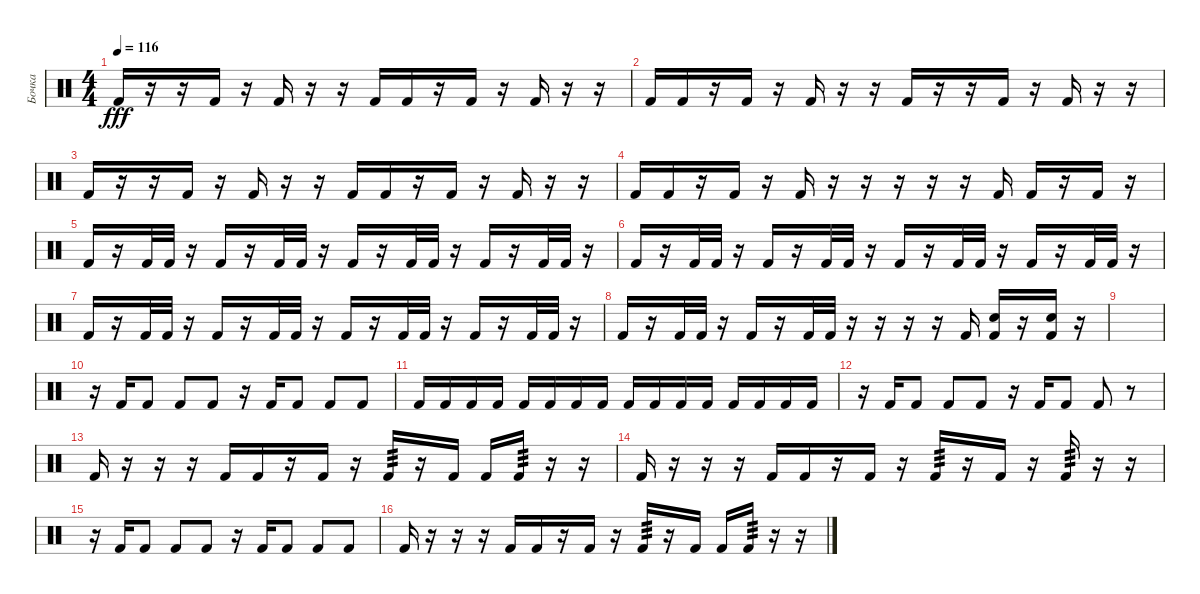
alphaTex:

\track ("Бочка" "Бочка") {instrument percussion}
\staff {score}
\articulation defaults
\ts (4 4)
\tempo 116
\clef neutral
\ks c "Kick (hit) 2".16{dy fff}
r.16 r.16 "Kick (hit) 2".16 r.16 "Kick (hit) 2".16 r.16 r.16 "Kick (hit) 2".16 "Kick (hit) 2".16 r.16 "Kick (hit) 2".16 r.16 "Kick (hit) 2".16 r.16 r.16 |
"Kick (hit) 2".16 "Kick (hit) 2".16 r.16 "Kick (hit) 2".16 r.16 "Kick (hit) 2".16 r.16 r.16 "Kick (hit) 2".16 r.16 r.16 "Kick (hit) 2".16 r.16 "Kick (hit) 2".16 r.16 r.16 |
"Kick (hit) 2".16 r.16 r.16 "Kick (hit) 2".16 r.16 "Kick (hit) 2".16 r.16 r.16 "Kick (hit) 2".16 "Kick (hit) 2".16 r.16 "Kick (hit) 2".16 r.16 "Kick (hit) 2".16 r.16 r.16 |
"Kick (hit) 2".16 "Kick (hit) 2".16 r.16 "Kick (hit) 2".16 r.16 "Kick (hit) 2".16 r.16 r.16 r.16 r.16 r.16 "Kick (hit) 2".16 "Kick (hit) 2".16 r.16 "Kick (hit) 2".16 r.16 |
"Kick (hit) 2".16 r.16 "Kick (hit) 2".32 "Kick (hit) 2".32 r.16 "Kick (hit) 2".16 r.16 "Kick (hit) 2".32 "Kick (hit) 2".32 r.16 "Kick (hit) 2".16 r.16 "Kick (hit) 2".32 "Kick (hit) 2".32 r.16 "Kick (hit) 2".16 r.16 "Kick (hit) 2".32 "Kick (hit) 2".32 r.16 |
"Kick (hit) 2".16 r.16 "Kick (hit) 2".32 "Kick (hit) 2".32 r.16 "Kick (hit) 2".16 r.16 "Kick (hit) 2".32 "Kick (hit) 2".32 r.16 "Kick (hit) 2".16 r.16 "Kick (hit) 2".32 "Kick (hit) 2".32 r.16 "Kick (hit) 2".16 r.16 "Kick (hit) 2".32 "Kick (hit) 2".32 r.16 |
"Kick (hit) 2".16 r.16 "Kick (hit) 2".32 "Kick (hit) 2".32 r.16 "Kick (hit) 2".16 r.16 "Kick (hit) 2".32 "Kick (hit) 2".32 r.16 "Kick (hit) 2".16 r.16 "Kick (hit) 2".32 "Kick (hit) 2".32 r.16 "Kick (hit) 2".16 r.16 "Kick (hit) 2".32 "Kick (hit) 2".32 r.16 |
"Kick (hit) 2".16 r.16 "Kick (hit) 2".32 "Kick (hit) 2".32 r.16 "Kick (hit) 2".16 r.16 "Kick (hit) 2".32 "Kick (hit) 2".32 r.16 r.16 r.16 r.16 "Kick (hit) 2".16 ("Snare (hit)" "Kick (hit) 2").16 r.16 ("Snare (hit)" "Kick (hit) 2").16 r.16 |
|
r.16 "Kick (hit) 2".16 "Kick (hit) 2".8 "Kick (hit) 2".8 "Kick (hit) 2".8 r.16 "Kick (hit) 2".16 "Kick (hit) 2".8 "Kick (hit) 2".8 "Kick (hit) 2".8 |
"Kick (hit) 2".16 "Kick (hit) 2".16 "Kick (hit) 2".16 "Kick (hit) 2".16 "Kick (hit) 2".16 "Kick (hit) 2".16 "Kick (hit) 2".16 "Kick (hit) 2".16 "Kick (hit) 2".16 "Kick (hit) 2".16 "Kick (hit) 2".16 "Kick (hit) 2".16 "Kick (hit) 2".16 "Kick (hit) 2".16 "Kick (hit) 2".16 "Kick (hit) 2".16 |
r.16 "Kick (hit) 2".16 "Kick (hit) 2".8 "Kick (hit) 2".8 "Kick (hit) 2".8 r.16 "Kick (hit) 2".16 "Kick (hit) 2".8 "Kick (hit) 2".8 r.8 |
"Kick (hit) 2".16 r.16 r.16 r.16 "Kick (hit) 2".16 "Kick (hit) 2".16 r.16 "Kick (hit) 2".16 r.16 "Kick (hit) 2".16{tp 3} r.16 "Kick (hit) 2".16 "Kick (hit) 2".16 "Kick (hit) 2".16{tp 3} r.16 r.16 |
"Kick (hit) 2".16 r.16 r.16 r.16 "Kick (hit) 2".16 "Kick (hit) 2".16 r.16 "Kick (hit) 2".16 r.16 "Kick (hit) 2".16{tp 3} r.16 "Kick (hit) 2".16 r.16 "Kick (hit) 2".16{tp 3} r.16 r.16 |
r.16 "Kick (hit) 2".16 "Kick (hit) 2".8 "Kick (hit) 2".8 "Kick (hit) 2".8 r.16 "Kick (hit) 2".16 "Kick (hit) 2".8 "Kick (hit) 2".8 "Kick (hit) 2".8 |
"Kick (hit) 2".16 r.16 r.16 r.16 "Kick (hit) 2".16 "Kick (hit) 2".16 r.16 "Kick (hit) 2".16 r.16 "Kick (hit) 2".16{tp 3} r.16 "Kick (hit) 2".16 "Kick (hit) 2".16 "Kick (hit) 2".16{tp 3} r.16 r.16
